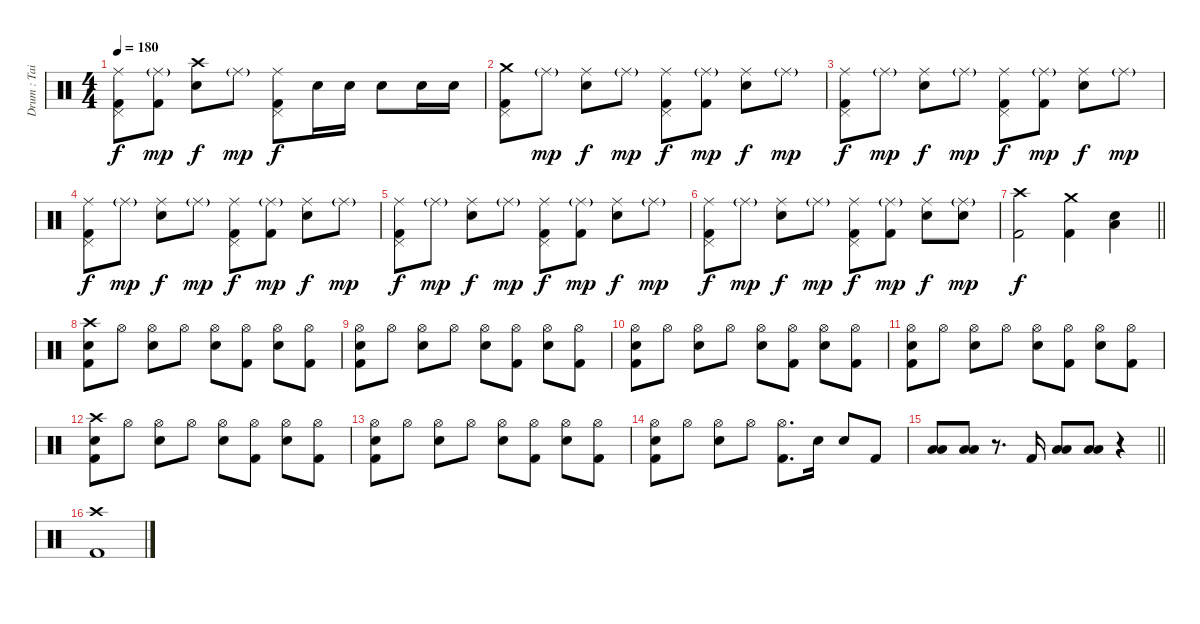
\track ("Drum : Tainaka Ritsu - Chan" "Drum : Tai") {instrument percussion}
\staff {score}
\articulation defaults
\ts (4 4)
\tempo 180
\clef neutral
\ks c
("Ride (middle)" "Pedal Hi-Hat (hit)" "Kick (hit) 2").8{dy f} ("Ride (middle)"{g} "Kick (hit) 2").8{dy mp} ("Crash high (hit)" "Electric Snare (hit)").8{dy f} "Ride (middle)"{g}.8{dy mp} ("Ride (middle)" "Pedal Hi-Hat (hit)" "Kick (hit) 2").8{dy f} "Electric Snare (hit)".16 "Electric Snare (hit)".16 "Electric Snare (hit)".8 "Electric Snare (hit)".16 "Electric Snare (hit)".16 |
("Crash medium (hit)" "Pedal Hi-Hat (hit)" "Kick (hit) 2").8 "Ride (middle)"{g}.8{dy mp} ("Ride (middle)" "Electric Snare (hit)").8{dy f} "Ride (middle)"{g}.8{dy mp} ("Ride (middle)" "Pedal Hi-Hat (hit)" "Kick (hit) 2").8{dy f} ("Ride (middle)"{g} "Kick (hit) 2").8{dy mp} ("Ride (middle)" "Electric Snare (hit)").8{dy f} "Ride (middle)"{g}.8{dy mp} |
("Ride (middle)" "Pedal Hi-Hat (hit)" "Kick (hit) 2").8{dy f} "Ride (middle)"{g}.8{dy mp} ("Ride (middle)" "Electric Snare (hit)").8{dy f} "Ride (middle)"{g}.8{dy mp} ("Ride (middle)" "Pedal Hi-Hat (hit)" "Kick (hit) 2").8{dy f} ("Ride (middle)"{g} "Kick (hit) 2").8{dy mp} ("Ride (middle)" "Electric Snare (hit)").8{dy f} "Ride (middle)"{g}.8{dy mp} |
("Ride (middle)" "Pedal Hi-Hat (hit)" "Kick (hit) 2").8{dy f} "Ride (middle)"{g}.8{dy mp} ("Ride (middle)" "Electric Snare (hit)").8{dy f} "Ride (middle)"{g}.8{dy mp} ("Ride (middle)" "Pedal Hi-Hat (hit)" "Kick (hit) 2").8{dy f} ("Ride (middle)"{g} "Kick (hit) 2").8{dy mp} ("Ride (middle)" "Electric Snare (hit)").8{dy f} "Ride (middle)"{g}.8{dy mp} |
("Ride (middle)" "Pedal Hi-Hat (hit)" "Kick (hit) 2").8{dy f} "Ride (middle)"{g}.8{dy mp} ("Ride (middle)" "Electric Snare (hit)").8{dy f} "Ride (middle)"{g}.8{dy mp} ("Ride (middle)" "Pedal Hi-Hat (hit)" "Kick (hit) 2").8{dy f} ("Ride (middle)"{g} "Kick (hit) 2").8{dy mp} ("Ride (middle)" "Electric Snare (hit)").8{dy f} "Ride (middle)"{g}.8{dy mp} |
("Ride (middle)" "Pedal Hi-Hat (hit)" "Kick (hit) 2").8{dy f} "Ride (middle)"{g}.8{dy mp} ("Ride (middle)" "Electric Snare (hit)").8{dy f} "Ride (middle)"{g}.8{dy mp} ("Ride (middle)" "Pedal Hi-Hat (hit)" "Kick (hit) 2").8{dy f} ("Ride (middle)"{g} "Kick (hit) 2").8{dy mp} ("Ride (middle)" "Electric Snare (hit)").8{dy f} ("Ride (middle)"{g} "Electric Snare (hit)").8{dy mp} |
\barLineRight lightlight
("Crash high (hit)" "Kick (hit) 2").2{dy f} ("Crash medium (hit)" "Kick (hit) 2").4 ("Electric Snare (hit)" "Low Floor Tom (hit)").4 |
("Crash high (hit)" "Electric Snare (hit)" "Kick (hit) 2").8 "Hi-Hat (open)".8 ("Hi-Hat (open)" "Electric Snare (hit)").8 "Hi-Hat (open)".8 ("Hi-Hat (open)" "Electric Snare (hit)").8 ("Hi-Hat (open)" "Kick (hit) 2").8 ("Hi-Hat (open)" "Electric Snare (hit)").8 ("Hi-Hat (open)" "Kick (hit) 2").8 |
("Hi-Hat (open)" "Electric Snare (hit)" "Kick (hit) 2").8 "Hi-Hat (open)".8 ("Hi-Hat (open)" "Electric Snare (hit)").8 "Hi-Hat (open)".8 ("Hi-Hat (open)" "Electric Snare (hit)").8 ("Hi-Hat (open)" "Kick (hit) 2").8 ("Hi-Hat (open)" "Electric Snare (hit)").8 ("Hi-Hat (open)" "Kick (hit) 2").8 |
("Hi-Hat (open)" "Electric Snare (hit)" "Kick (hit) 2").8 "Hi-Hat (open)".8 ("Hi-Hat (open)" "Electric Snare (hit)").8 "Hi-Hat (open)".8 ("Hi-Hat (open)" "Electric Snare (hit)").8 ("Hi-Hat (open)" "Kick (hit) 2").8 ("Hi-Hat (open)" "Electric Snare (hit)").8 ("Hi-Hat (open)" "Kick (hit) 2").8 |
("Hi-Hat (open)" "Electric Snare (hit)" "Kick (hit) 2").8 "Hi-Hat (open)".8 ("Hi-Hat (open)" "Electric Snare (hit)").8 "Hi-Hat (open)".8 ("Hi-Hat (open)" "Electric Snare (hit)").8 ("Hi-Hat (open)" "Kick (hit) 2").8 ("Hi-Hat (open)" "Electric Snare (hit)").8 ("Hi-Hat (open)" "Kick (hit) 2").8 |
("Crash high (hit)" "Electric Snare (hit)" "Kick (hit) 2").8 "Hi-Hat (open)".8 ("Hi-Hat (open)" "Electric Snare (hit)").8 "Hi-Hat (open)".8 ("Hi-Hat (open)" "Electric Snare (hit)").8 ("Hi-Hat (open)" "Kick (hit) 2").8 ("Hi-Hat (open)" "Electric Snare (hit)").8 ("Hi-Hat (open)" "Kick (hit) 2").8 |
("Hi-Hat (open)" "Electric Snare (hit)" "Kick (hit) 2").8 "Hi-Hat (open)".8 ("Hi-Hat (open)" "Electric Snare (hit)").8 "Hi-Hat (open)".8 ("Hi-Hat (open)" "Electric Snare (hit)").8 ("Hi-Hat (open)" "Kick (hit) 2").8 ("Hi-Hat (open)" "Electric Snare (hit)").8 ("Hi-Hat (open)" "Kick (hit) 2").8 |
("Hi-Hat (open)" "Electric Snare (hit)" "Kick (hit) 2").8 "Hi-Hat (open)".8 ("Hi-Hat (open)" "Electric Snare (hit)").8 "Hi-Hat (open)".8 ("Hi-Hat (open)" "Kick (hit) 2").8{d} "Electric Snare (hit)".16 "Electric Snare (hit)".8 "Kick (hit) 2".8 |
\barLineRight lightlight
("Low Tom (hit)" "Low Floor Tom (hit)").8 ("Low Tom (hit)" "Low Floor Tom (hit)").8 r.8{d} "Kick (hit) 2".16 ("Low Tom (hit)" "Low Floor Tom (hit)").8 ("Low Tom (hit)" "Low Floor Tom (hit)").8 r.4 |
("Crash high (hit)" "Kick (hit) 2").1
